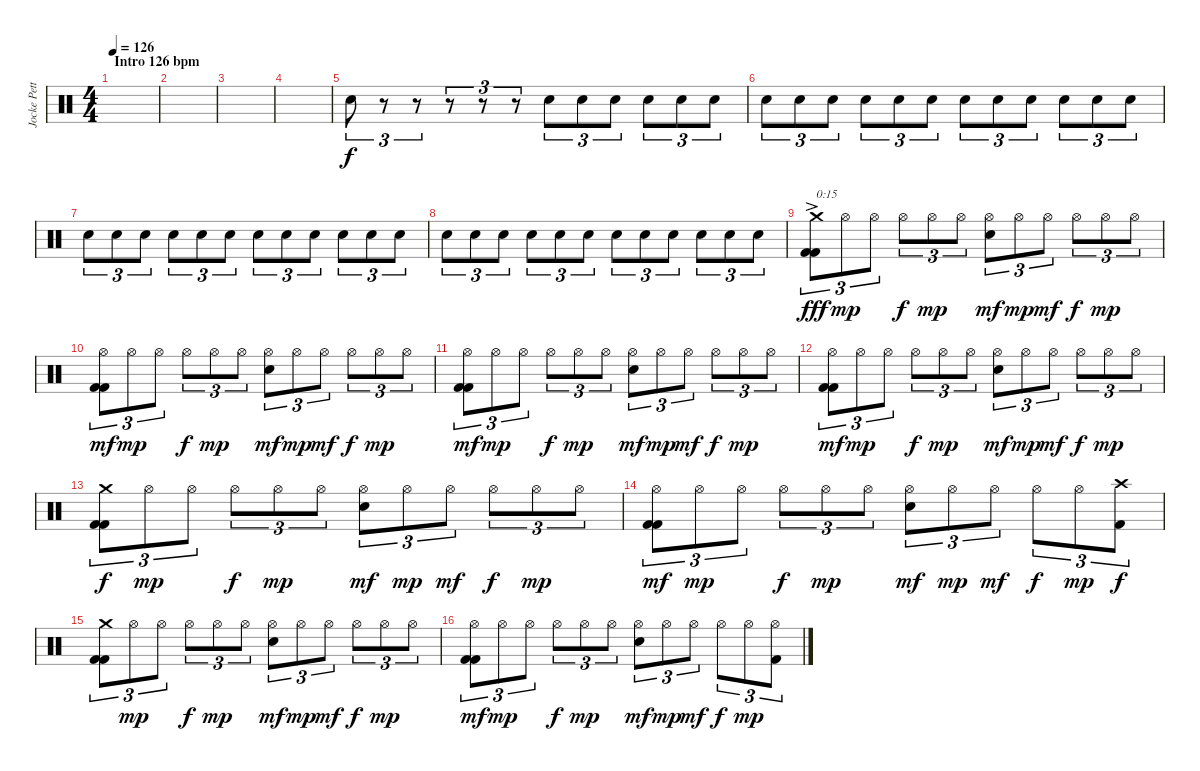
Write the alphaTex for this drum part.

\track ("Jocke Pettersson" "Jocke Pett") {instrument percussion}
\staff {score}
\articulation defaults
\ts (4 4)
\section ("" "Intro 126 bpm")
\tempo 126
\clef neutral
\ks c
|
|
|
|
"Electric Snare (hit)".8{tu (3 2) volume 3} r.8{tu (3 2) volume 14} r.8{tu (3 2)} r.8{tu (3 2)} r.8{tu (3 2)} r.8{tu (3 2)} "Electric Snare (hit)".8{tu (3 2)} "Electric Snare (hit)".8{tu (3 2)} "Electric Snare (hit)".8{tu (3 2)} "Electric Snare (hit)".8{tu (3 2)} "Electric Snare (hit)".8{tu (3 2)} "Electric Snare (hit)".8{tu (3 2)} |
"Electric Snare (hit)".8{tu (3 2)} "Electric Snare (hit)".8{tu (3 2)} "Electric Snare (hit)".8{tu (3 2)} "Electric Snare (hit)".8{tu (3 2)} "Electric Snare (hit)".8{tu (3 2)} "Electric Snare (hit)".8{tu (3 2)} "Electric Snare (hit)".8{tu (3 2)} "Electric Snare (hit)".8{tu (3 2)} "Electric Snare (hit)".8{tu (3 2)} "Electric Snare (hit)".8{tu (3 2)} "Electric Snare (hit)".8{tu (3 2)} "Electric Snare (hit)".8{tu (3 2)} |
"Electric Snare (hit)".8{tu (3 2)} "Electric Snare (hit)".8{tu (3 2)} "Electric Snare (hit)".8{tu (3 2)} "Electric Snare (hit)".8{tu (3 2)} "Electric Snare (hit)".8{tu (3 2)} "Electric Snare (hit)".8{tu (3 2)} "Electric Snare (hit)".8{tu (3 2)} "Electric Snare (hit)".8{tu (3 2)} "Electric Snare (hit)".8{tu (3 2)} "Electric Snare (hit)".8{tu (3 2)} "Electric Snare (hit)".8{tu (3 2)} "Electric Snare (hit)".8{tu (3 2)} |
"Electric Snare (hit)".8{tu (3 2)} "Electric Snare (hit)".8{tu (3 2)} "Electric Snare (hit)".8{tu (3 2)} "Electric Snare (hit)".8{tu (3 2)} "Electric Snare (hit)".8{tu (3 2)} "Electric Snare (hit)".8{tu (3 2)} "Electric Snare (hit)".8{tu (3 2)} "Electric Snare (hit)".8{tu (3 2)} "Electric Snare (hit)".8{tu (3 2)} "Electric Snare (hit)".8{tu (3 2)} "Electric Snare (hit)".8{tu (3 2)} "Electric Snare (hit)".8{tu (3 2)} |
("Kick (hit) 2" "Kick (hit) 2" "Crash medium (hit)"{ac}).8{tu (3 2) txt "0:15" dy fff} "Hi-Hat (open)".8{tu (3 2) dy mp} "Hi-Hat (open)".8{tu (3 2)} "Hi-Hat (open)".8{tu (3 2) dy f} "Hi-Hat (open)".8{tu (3 2) dy mp} "Hi-Hat (open)".8{tu (3 2)} ("Electric Snare (hit)" "Hi-Hat (open)").8{tu (3 2) dy mf} "Hi-Hat (open)".8{tu (3 2) dy mp} "Hi-Hat (open)".8{tu (3 2) dy mf} "Hi-Hat (open)".8{tu (3 2) dy f} "Hi-Hat (open)".8{tu (3 2) dy mp} "Hi-Hat (open)".8{tu (3 2)} |
("Kick (hit) 2" "Kick (hit) 2" "Hi-Hat (open)").8{tu (3 2) dy mf} "Hi-Hat (open)".8{tu (3 2) dy mp} "Hi-Hat (open)".8{tu (3 2)} "Hi-Hat (open)".8{tu (3 2) dy f} "Hi-Hat (open)".8{tu (3 2) dy mp} "Hi-Hat (open)".8{tu (3 2)} ("Electric Snare (hit)" "Hi-Hat (open)").8{tu (3 2) dy mf} "Hi-Hat (open)".8{tu (3 2) dy mp} "Hi-Hat (open)".8{tu (3 2) dy mf} "Hi-Hat (open)".8{tu (3 2) dy f} "Hi-Hat (open)".8{tu (3 2) dy mp} "Hi-Hat (open)".8{tu (3 2)} |
("Kick (hit) 2" "Kick (hit) 2" "Hi-Hat (open)").8{tu (3 2) dy mf} "Hi-Hat (open)".8{tu (3 2) dy mp} "Hi-Hat (open)".8{tu (3 2)} "Hi-Hat (open)".8{tu (3 2) dy f} "Hi-Hat (open)".8{tu (3 2) dy mp} "Hi-Hat (open)".8{tu (3 2)} ("Electric Snare (hit)" "Hi-Hat (open)").8{tu (3 2) dy mf} "Hi-Hat (open)".8{tu (3 2) dy mp} "Hi-Hat (open)".8{tu (3 2) dy mf} "Hi-Hat (open)".8{tu (3 2) dy f} "Hi-Hat (open)".8{tu (3 2) dy mp} "Hi-Hat (open)".8{tu (3 2)} |
("Kick (hit) 2" "Kick (hit) 2" "Hi-Hat (open)").8{tu (3 2) dy mf} "Hi-Hat (open)".8{tu (3 2) dy mp} "Hi-Hat (open)".8{tu (3 2)} "Hi-Hat (open)".8{tu (3 2) dy f} "Hi-Hat (open)".8{tu (3 2) dy mp} "Hi-Hat (open)".8{tu (3 2)} ("Electric Snare (hit)" "Hi-Hat (open)").8{tu (3 2) dy mf} "Hi-Hat (open)".8{tu (3 2) dy mp} "Hi-Hat (open)".8{tu (3 2) dy mf} "Hi-Hat (open)".8{tu (3 2) dy f} "Hi-Hat (open)".8{tu (3 2) dy mp} "Hi-Hat (open)".8{tu (3 2)} |
("Kick (hit) 2" "Kick (hit) 2" "Crash medium (hit)").8{tu (3 2) dy f} "Hi-Hat (open)".8{tu (3 2) dy mp} "Hi-Hat (open)".8{tu (3 2)} "Hi-Hat (open)".8{tu (3 2) dy f} "Hi-Hat (open)".8{tu (3 2) dy mp} "Hi-Hat (open)".8{tu (3 2)} ("Electric Snare (hit)" "Hi-Hat (open)").8{tu (3 2) dy mf} "Hi-Hat (open)".8{tu (3 2) dy mp} "Hi-Hat (open)".8{tu (3 2) dy mf} "Hi-Hat (open)".8{tu (3 2) dy f} "Hi-Hat (open)".8{tu (3 2) dy mp} "Hi-Hat (open)".8{tu (3 2)} |
("Kick (hit) 2" "Kick (hit) 2" "Hi-Hat (open)").8{tu (3 2) dy mf} "Hi-Hat (open)".8{tu (3 2) dy mp} "Hi-Hat (open)".8{tu (3 2)} "Hi-Hat (open)".8{tu (3 2) dy f} "Hi-Hat (open)".8{tu (3 2) dy mp} "Hi-Hat (open)".8{tu (3 2)} ("Electric Snare (hit)" "Hi-Hat (open)").8{tu (3 2) dy mf} "Hi-Hat (open)".8{tu (3 2) dy mp} "Hi-Hat (open)".8{tu (3 2) dy mf} "Hi-Hat (open)".8{tu (3 2) dy f} "Hi-Hat (open)".8{tu (3 2) dy mp} ("Kick (hit) 2" "Crash high (hit)").8{tu (3 2) dy f} |
("Kick (hit) 2" "Kick (hit) 2" "Crash medium (hit)").8{tu (3 2)} "Hi-Hat (open)".8{tu (3 2) dy mp} "Hi-Hat (open)".8{tu (3 2)} "Hi-Hat (open)".8{tu (3 2) dy f} "Hi-Hat (open)".8{tu (3 2) dy mp} "Hi-Hat (open)".8{tu (3 2)} ("Electric Snare (hit)" "Hi-Hat (open)").8{tu (3 2) dy mf} "Hi-Hat (open)".8{tu (3 2) dy mp} "Hi-Hat (open)".8{tu (3 2) dy mf} "Hi-Hat (open)".8{tu (3 2) dy f} "Hi-Hat (open)".8{tu (3 2) dy mp} "Hi-Hat (open)".8{tu (3 2)} |
("Kick (hit) 2" "Kick (hit) 2" "Hi-Hat (open)").8{tu (3 2) dy mf} "Hi-Hat (open)".8{tu (3 2) dy mp} "Hi-Hat (open)".8{tu (3 2)} "Hi-Hat (open)".8{tu (3 2) dy f} "Hi-Hat (open)".8{tu (3 2) dy mp} "Hi-Hat (open)".8{tu (3 2)} ("Electric Snare (hit)" "Hi-Hat (open)").8{tu (3 2) dy mf} "Hi-Hat (open)".8{tu (3 2) dy mp} "Hi-Hat (open)".8{tu (3 2) dy mf} "Hi-Hat (open)".8{tu (3 2) dy f} "Hi-Hat (open)".8{tu (3 2) dy mp} ("Kick (hit) 2" "Hi-Hat (open)").8{tu (3 2)}
